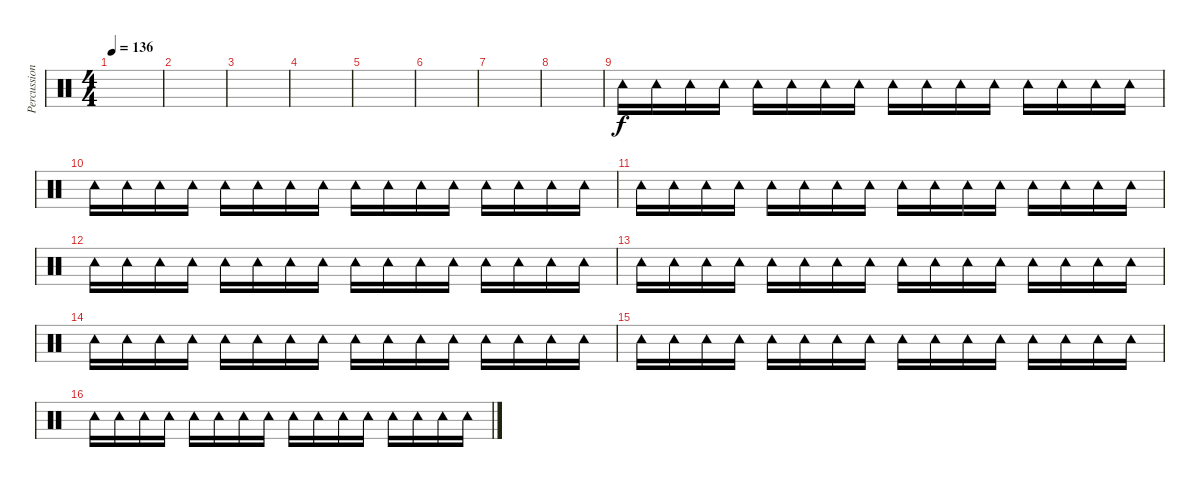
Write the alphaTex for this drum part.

\track ("Percussion" "Percussion") {instrument percussion}
\staff {score}
\articulation defaults
\ts (4 4)
\tempo 136
\clef neutral
\ks c
|
|
|
|
|
|
|
|
"Tambourine (hit)".16 "Tambourine (hit)".16 "Tambourine (hit)".16 "Tambourine (hit)".16 "Tambourine (hit)".16 "Tambourine (hit)".16 "Tambourine (hit)".16 "Tambourine (hit)".16 "Tambourine (hit)".16 "Tambourine (hit)".16 "Tambourine (hit)".16 "Tambourine (hit)".16 "Tambourine (hit)".16 "Tambourine (hit)".16 "Tambourine (hit)".16 "Tambourine (hit)".16 |
"Tambourine (hit)".16 "Tambourine (hit)".16 "Tambourine (hit)".16 "Tambourine (hit)".16 "Tambourine (hit)".16 "Tambourine (hit)".16 "Tambourine (hit)".16 "Tambourine (hit)".16 "Tambourine (hit)".16 "Tambourine (hit)".16 "Tambourine (hit)".16 "Tambourine (hit)".16 "Tambourine (hit)".16 "Tambourine (hit)".16 "Tambourine (hit)".16 "Tambourine (hit)".16 |
"Tambourine (hit)".16 "Tambourine (hit)".16 "Tambourine (hit)".16 "Tambourine (hit)".16 "Tambourine (hit)".16 "Tambourine (hit)".16 "Tambourine (hit)".16 "Tambourine (hit)".16 "Tambourine (hit)".16 "Tambourine (hit)".16 "Tambourine (hit)".16 "Tambourine (hit)".16 "Tambourine (hit)".16 "Tambourine (hit)".16 "Tambourine (hit)".16 "Tambourine (hit)".16 |
"Tambourine (hit)".16 "Tambourine (hit)".16 "Tambourine (hit)".16 "Tambourine (hit)".16 "Tambourine (hit)".16 "Tambourine (hit)".16 "Tambourine (hit)".16 "Tambourine (hit)".16 "Tambourine (hit)".16 "Tambourine (hit)".16 "Tambourine (hit)".16 "Tambourine (hit)".16 "Tambourine (hit)".16 "Tambourine (hit)".16 "Tambourine (hit)".16 "Tambourine (hit)".16 |
"Tambourine (hit)".16 "Tambourine (hit)".16 "Tambourine (hit)".16 "Tambourine (hit)".16 "Tambourine (hit)".16 "Tambourine (hit)".16 "Tambourine (hit)".16 "Tambourine (hit)".16 "Tambourine (hit)".16 "Tambourine (hit)".16 "Tambourine (hit)".16 "Tambourine (hit)".16 "Tambourine (hit)".16 "Tambourine (hit)".16 "Tambourine (hit)".16 "Tambourine (hit)".16 |
"Tambourine (hit)".16 "Tambourine (hit)".16 "Tambourine (hit)".16 "Tambourine (hit)".16 "Tambourine (hit)".16 "Tambourine (hit)".16 "Tambourine (hit)".16 "Tambourine (hit)".16 "Tambourine (hit)".16 "Tambourine (hit)".16 "Tambourine (hit)".16 "Tambourine (hit)".16 "Tambourine (hit)".16 "Tambourine (hit)".16 "Tambourine (hit)".16 "Tambourine (hit)".16 |
"Tambourine (hit)".16 "Tambourine (hit)".16 "Tambourine (hit)".16 "Tambourine (hit)".16 "Tambourine (hit)".16 "Tambourine (hit)".16 "Tambourine (hit)".16 "Tambourine (hit)".16 "Tambourine (hit)".16 "Tambourine (hit)".16 "Tambourine (hit)".16 "Tambourine (hit)".16 "Tambourine (hit)".16 "Tambourine (hit)".16 "Tambourine (hit)".16 "Tambourine (hit)".16 |
"Tambourine (hit)".16 "Tambourine (hit)".16 "Tambourine (hit)".16 "Tambourine (hit)".16 "Tambourine (hit)".16 "Tambourine (hit)".16 "Tambourine (hit)".16 "Tambourine (hit)".16 "Tambourine (hit)".16 "Tambourine (hit)".16 "Tambourine (hit)".16 "Tambourine (hit)".16 "Tambourine (hit)".16 "Tambourine (hit)".16 "Tambourine (hit)".16 "Tambourine (hit)".16
